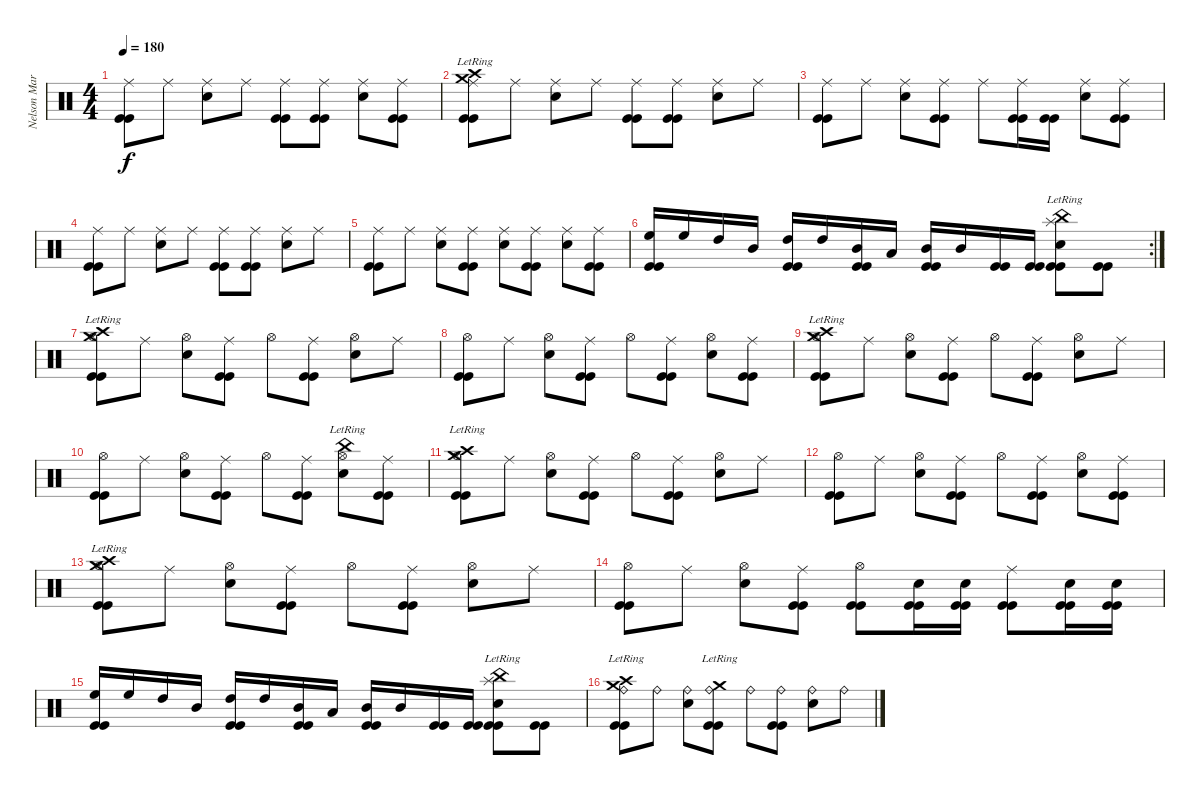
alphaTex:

\track ("Nelson Maria" "Nelson Mar") {instrument percussion}
\staff {score}
\articulation defaults
\ts (4 4)
\tempo 180
\clef neutral
\ks c
("Ride (middle)" "Kick (hit)" "Kick (hit)").8{dy f} "Ride (middle)".8 ("Snare (hit) 2" "Ride (middle)").8 "Ride (middle)".8 ("Ride (middle)" "Kick (hit)" "Kick (hit)").8 ("Ride (middle)" "Kick (hit)" "Kick (hit)").8 ("Snare (hit) 2" "Ride (middle)").8 ("Ride (middle)" "Kick (hit)" "Kick (hit)").8 |
("Crash high (hit)"{lr} "Crash medium (hit)" "Ride (middle)" "Kick (hit)" "Kick (hit)").8 "Ride (middle)".8 ("Snare (hit) 2" "Ride (middle)").8 "Ride (middle)".8 ("Ride (middle)" "Kick (hit)" "Kick (hit)").8 ("Ride (middle)" "Kick (hit)" "Kick (hit)").8 ("Snare (hit) 2" "Ride (middle)").8 "Ride (middle)".8 |
("Ride (middle)" "Kick (hit)" "Kick (hit)").8 "Ride (middle)".8 ("Snare (hit) 2" "Ride (middle)").8 ("Ride (middle)" "Kick (hit)" "Kick (hit)").8 "Ride (middle)".8 ("Ride (middle)" "Kick (hit)" "Kick (hit)").16 ("Kick (hit)" "Kick (hit)").16 ("Snare (hit) 2" "Ride (middle)").8 ("Ride (middle)" "Kick (hit)" "Kick (hit)").8 |
("Ride (middle)" "Kick (hit)" "Kick (hit)").8 "Ride (middle)".8 ("Snare (hit) 2" "Ride (middle)").8 "Ride (middle)".8 ("Ride (middle)" "Kick (hit)" "Kick (hit)").8 ("Ride (middle)" "Kick (hit)" "Kick (hit)").8 ("Snare (hit) 2" "Ride (middle)").8 "Ride (middle)".8 |
("Ride (middle)" "Kick (hit)" "Kick (hit)").8 "Ride (middle)".8 ("Snare (hit) 2" "Ride (middle)").8 ("Ride (middle)" "Kick (hit)" "Kick (hit)").8 ("Snare (hit) 2" "Ride (middle)").8 ("Ride (middle)" "Kick (hit)" "Kick (hit)").8 ("Snare (hit) 2" "Ride (middle)").8 ("Ride (middle)" "Kick (hit)" "Kick (hit)").8 |
\rc 2
("High Floor Tom (hit)" "Kick (hit)" "Kick (hit)").16 "High Floor Tom (hit)".16 "High Tom (hit)".16 "Mid Tom (hit)".16 ("High Tom (hit)" "Kick (hit)" "Kick (hit)").16 "High Tom (hit)".16 ("Mid Tom (hit)" "Kick (hit)" "Kick (hit)").16 "Low Tom (hit)".16 ("Mid Tom (hit)" "Kick (hit)" "Kick (hit)").16 "Mid Tom (hit)".16 ("Kick (hit)" "Kick (hit)").16 ("Kick (hit)" "Kick (hit)").16 ("China (hit)"{lr} "Splash (hit)"{lr} "Snare (hit) 2" "Kick (hit)" "Kick (hit)").8 ("Kick (hit)" "Kick (hit)").8 |
("Crash high (hit)"{lr} "Crash medium (hit)" "Hi-Hat (open)" "Kick (hit)" "Kick (hit)").8 "Ride (middle)".8 ("Snare (hit) 2" "Hi-Hat (open)").8 ("Ride (middle)" "Kick (hit)" "Kick (hit)").8 "Hi-Hat (open)".8 ("Ride (middle)" "Kick (hit)" "Kick (hit)").8 ("Snare (hit) 2" "Hi-Hat (open)").8 "Ride (middle)".8 |
("Hi-Hat (open)" "Kick (hit)" "Kick (hit)").8 "Ride (middle)".8 ("Snare (hit) 2" "Hi-Hat (open)").8 ("Ride (middle)" "Kick (hit)" "Kick (hit)").8 "Hi-Hat (open)".8 ("Ride (middle)" "Kick (hit)" "Kick (hit)").8 ("Snare (hit) 2" "Hi-Hat (open)").8 ("Ride (middle)" "Kick (hit)" "Kick (hit)").8 |
("Crash high (hit)"{lr} "Crash medium (hit)" "Hi-Hat (open)" "Kick (hit)" "Kick (hit)").8 "Ride (middle)".8 ("Snare (hit) 2" "Hi-Hat (open)").8 ("Ride (middle)" "Kick (hit)" "Kick (hit)").8 "Hi-Hat (open)".8 ("Ride (middle)" "Kick (hit)" "Kick (hit)").8 ("Snare (hit) 2" "Hi-Hat (open)").8 "Ride (middle)".8 |
("Hi-Hat (open)" "Kick (hit)" "Kick (hit)").8 "Ride (middle)".8 ("Snare (hit) 2" "Hi-Hat (open)").8 ("Ride (middle)" "Kick (hit)" "Kick (hit)").8 "Hi-Hat (open)".8 ("Ride (middle)" "Kick (hit)" "Kick (hit)").8 ("China (hit)"{lr} "Snare (hit) 2" "Hi-Hat (open)").8 ("Ride (middle)" "Kick (hit)" "Kick (hit)").8 |
("Crash high (hit)"{lr} "Crash medium (hit)" "Hi-Hat (open)" "Kick (hit)" "Kick (hit)").8 "Ride (middle)".8 ("Snare (hit) 2" "Hi-Hat (open)").8 ("Ride (middle)" "Kick (hit)" "Kick (hit)").8 "Hi-Hat (open)".8 ("Ride (middle)" "Kick (hit)" "Kick (hit)").8 ("Snare (hit) 2" "Hi-Hat (open)").8 "Ride (middle)".8 |
("Hi-Hat (open)" "Kick (hit)" "Kick (hit)").8 "Ride (middle)".8 ("Snare (hit) 2" "Hi-Hat (open)").8 ("Ride (middle)" "Kick (hit)" "Kick (hit)").8 "Hi-Hat (open)".8 ("Ride (middle)" "Kick (hit)" "Kick (hit)").8 ("Snare (hit) 2" "Hi-Hat (open)").8 ("Ride (middle)" "Kick (hit)" "Kick (hit)").8 |
("Crash high (hit)"{lr} "Crash medium (hit)" "Hi-Hat (open)" "Kick (hit)" "Kick (hit)").8 "Ride (middle)".8 ("Snare (hit) 2" "Hi-Hat (open)").8 ("Ride (middle)" "Kick (hit)" "Kick (hit)").8 "Hi-Hat (open)".8 ("Ride (middle)" "Kick (hit)" "Kick (hit)").8 ("Snare (hit) 2" "Hi-Hat (open)").8 "Ride (middle)".8 |
("Hi-Hat (open)" "Kick (hit)" "Kick (hit)").8 "Ride (middle)".8 ("Snare (hit) 2" "Hi-Hat (open)").8 ("Ride (middle)" "Kick (hit)" "Kick (hit)").8 ("Hi-Hat (open)" "Kick (hit)" "Kick (hit)").8 ("Snare (hit) 2" "Kick (hit)" "Kick (hit)").16 ("Snare (hit) 2" "Kick (hit)" "Kick (hit)").16 ("Ride (middle)" "Kick (hit)" "Kick (hit)").8 ("Snare (hit) 2" "Kick (hit)" "Kick (hit)").16 ("Snare (hit) 2" "Kick (hit)" "Kick (hit)").16 |
("High Floor Tom (hit)" "Kick (hit)" "Kick (hit)").16 "High Floor Tom (hit)".16 "High Tom (hit)".16 "Mid Tom (hit)".16 ("High Tom (hit)" "Kick (hit)" "Kick (hit)").16 "High Tom (hit)".16 ("Mid Tom (hit)" "Kick (hit)" "Kick (hit)").16 "Low Tom (hit)".16 ("Mid Tom (hit)" "Kick (hit)" "Kick (hit)").16 "Mid Tom (hit)".16 ("Kick (hit)" "Kick (hit)").16 ("Kick (hit)" "Kick (hit)").16 ("China (hit)"{lr} "Splash (hit)"{lr} "Snare (hit) 2" "Kick (hit)" "Kick (hit)").8 ("Kick (hit)" "Kick (hit)").8 |
("Crash high (hit)"{lr} "Crash medium (hit)" "Ride (bell)" "Kick (hit)" "Kick (hit)").8 "Ride (bell)".8 ("Snare (hit) 2" "Ride (bell)").8 ("Crash medium (hit)"{lr} "Ride (bell)" "Kick (hit)" "Kick (hit)").8 "Ride (bell)".8 ("Ride (bell)" "Kick (hit)" "Kick (hit)").8 ("Snare (hit) 2" "Ride (bell)").8 "Ride (bell)".8
